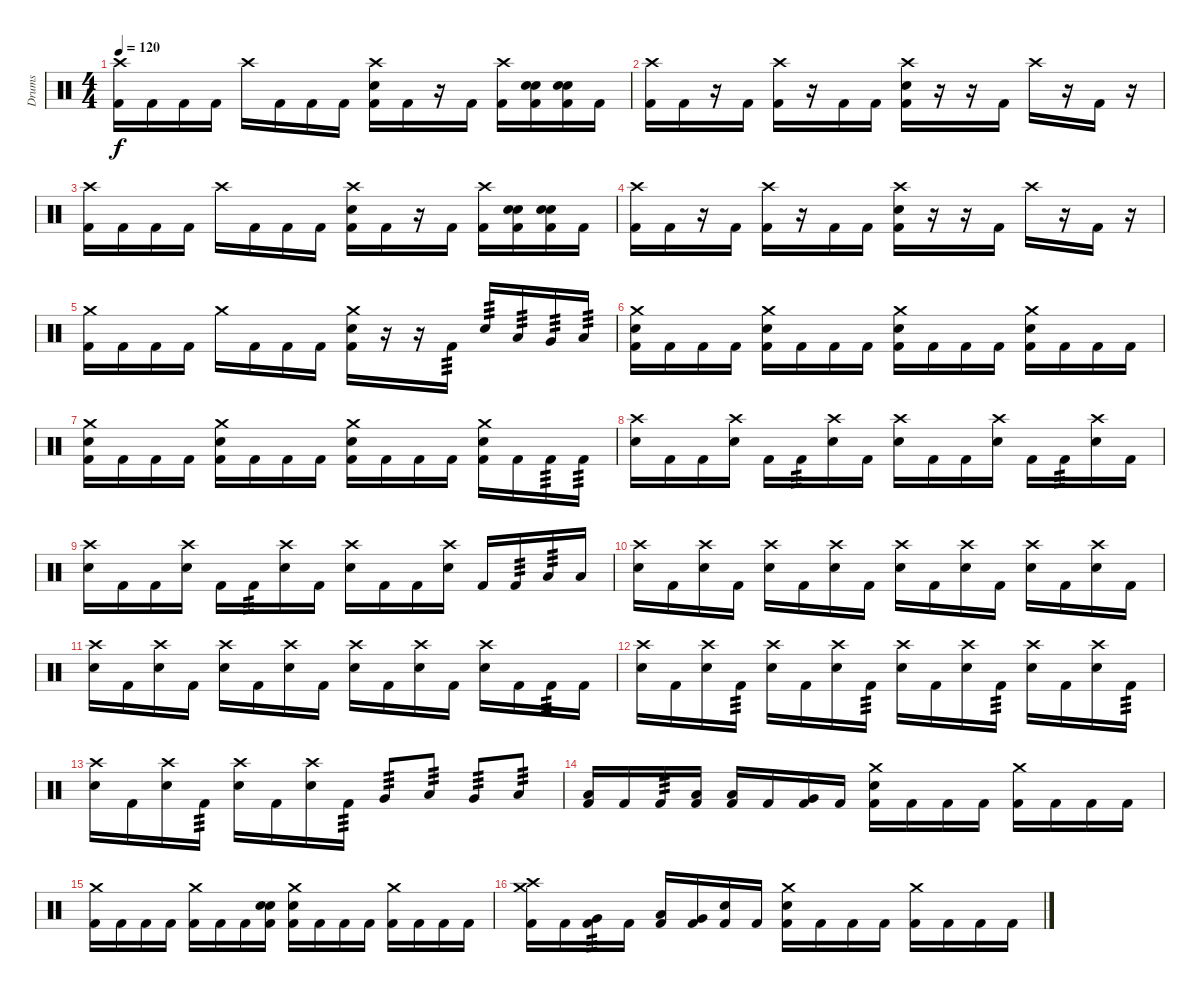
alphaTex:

\track ("Drums" "Drums") {instrument percussion}
\staff {score}
\articulation defaults
\ts (4 4)
\tempo 120
\clef neutral
\ks c
("Crash high (hit)" "Kick (hit) 2").16{dy f} "Kick (hit) 2".16 "Kick (hit) 2".16 "Kick (hit) 2".16 "Crash high (hit)".16 "Kick (hit) 2".16 "Kick (hit) 2".16 "Kick (hit) 2".16 ("Crash high (hit)" "Electric Snare (hit)" "Kick (hit) 2").16 "Kick (hit) 2".16 r.16 "Kick (hit) 2".16 ("Crash high (hit)" "Kick (hit) 2").16 ("Electric Snare (hit)" "Electric Snare (hit)" "Kick (hit) 2").16 ("Electric Snare (hit)" "Electric Snare (hit)" "Kick (hit) 2").16 "Kick (hit) 2".16 |
("Crash high (hit)" "Kick (hit) 2").16 "Kick (hit) 2".16 r.16 "Kick (hit) 2".16 ("Crash high (hit)" "Kick (hit) 2").16 r.16 "Kick (hit) 2".16 "Kick (hit) 2".16 ("Crash high (hit)" "Electric Snare (hit)" "Kick (hit) 2").16 r.16 r.16 "Kick (hit) 2".16 "Crash high (hit)".16 r.16 "Kick (hit) 2".16 r.16 |
("Crash high (hit)" "Kick (hit) 2").16 "Kick (hit) 2".16 "Kick (hit) 2".16 "Kick (hit) 2".16 "Crash high (hit)".16 "Kick (hit) 2".16 "Kick (hit) 2".16 "Kick (hit) 2".16 ("Crash high (hit)" "Electric Snare (hit)" "Kick (hit) 2").16 "Kick (hit) 2".16 r.16 "Kick (hit) 2".16 ("Crash high (hit)" "Kick (hit) 2").16 ("Electric Snare (hit)" "Electric Snare (hit)" "Kick (hit) 2").16 ("Electric Snare (hit)" "Electric Snare (hit)" "Kick (hit) 2").16 "Kick (hit) 2".16 |
("Crash high (hit)" "Kick (hit) 2").16 "Kick (hit) 2".16 r.16 "Kick (hit) 2".16 ("Crash high (hit)" "Kick (hit) 2").16 r.16 "Kick (hit) 2".16 "Kick (hit) 2".16 ("Crash high (hit)" "Electric Snare (hit)" "Kick (hit) 2").16 r.16 r.16 "Kick (hit) 2".16 "Crash high (hit)".16 r.16 "Kick (hit) 2".16 r.16 |
("Crash medium (hit)" "Kick (hit) 2").16 "Kick (hit) 2".16 "Kick (hit) 2".16 "Kick (hit) 2".16 "Crash medium (hit)".16 "Kick (hit) 2".16 "Kick (hit) 2".16 "Kick (hit) 2".16 ("Crash medium (hit)" "Electric Snare (hit)" "Kick (hit) 2").16 r.16 r.16 "Kick (hit) 2".16{tp 3} "Electric Snare (hit)".16{tp 3} "Low Floor Tom (hit)".16{tp 3} "Very Low Tom (hit)".16{tp 3} "Low Tom (hit)".16{tp 3} |
("Crash medium (hit)" "Electric Snare (hit)" "Kick (hit) 2").16 "Kick (hit) 2".16 "Kick (hit) 2".16 "Kick (hit) 2".16 ("Crash medium (hit)" "Electric Snare (hit)" "Kick (hit) 2").16 "Kick (hit) 2".16 "Kick (hit) 2".16 "Kick (hit) 2".16 ("Crash medium (hit)" "Electric Snare (hit)" "Kick (hit) 2").16 "Kick (hit) 2".16 "Kick (hit) 2".16 "Kick (hit) 2".16 ("Crash medium (hit)" "Electric Snare (hit)" "Kick (hit) 2").16 "Kick (hit) 2".16 "Kick (hit) 2".16 "Kick (hit) 2".16 |
("Crash medium (hit)" "Electric Snare (hit)" "Kick (hit) 2").16 "Kick (hit) 2".16 "Kick (hit) 2".16 "Kick (hit) 2".16 ("Crash medium (hit)" "Electric Snare (hit)" "Kick (hit) 2").16 "Kick (hit) 2".16 "Kick (hit) 2".16 "Kick (hit) 2".16 ("Crash medium (hit)" "Electric Snare (hit)" "Kick (hit) 2").16 "Kick (hit) 2".16 "Kick (hit) 2".16 "Kick (hit) 2".16 ("Crash medium (hit)" "Electric Snare (hit)" "Kick (hit) 2").16 "Kick (hit) 2".16 "Kick (hit) 2".16{tp 3} "Kick (hit) 2".16{tp 3} |
("Crash high (hit)" "Electric Snare (hit)").16 "Kick (hit) 2".16 "Kick (hit) 2".16 ("Crash high (hit)" "Electric Snare (hit)").16 "Kick (hit) 2".16 "Kick (hit) 2".16{tp 3} ("Crash high (hit)" "Electric Snare (hit)").16 "Kick (hit) 2".16 ("Crash high (hit)" "Electric Snare (hit)").16 "Kick (hit) 2".16 "Kick (hit) 2".16 ("Crash high (hit)" "Electric Snare (hit)").16 "Kick (hit) 2".16 "Kick (hit) 2".16{tp 3} ("Crash high (hit)" "Electric Snare (hit)").16 "Kick (hit) 2".16 |
("Crash high (hit)" "Electric Snare (hit)").16 "Kick (hit) 2".16 "Kick (hit) 2".16 ("Crash high (hit)" "Electric Snare (hit)").16 "Kick (hit) 2".16 "Kick (hit) 2".16{tp 3} ("Crash high (hit)" "Electric Snare (hit)").16 "Kick (hit) 2".16 ("Crash high (hit)" "Electric Snare (hit)").16 "Kick (hit) 2".16 "Kick (hit) 2".16 ("Crash high (hit)" "Electric Snare (hit)").16 "Kick (hit) 2".16 "Kick (hit) 2".16{tp 3} "Low Floor Tom (hit)".16{tp 3} "Low Floor Tom (hit)".16 |
("Crash high (hit)" "Electric Snare (hit)").16 "Kick (hit) 2".16 ("Crash high (hit)" "Electric Snare (hit)").16 "Kick (hit) 2".16 ("Crash high (hit)" "Electric Snare (hit)").16 "Kick (hit) 2".16 ("Crash high (hit)" "Electric Snare (hit)").16 "Kick (hit) 2".16 ("Crash high (hit)" "Electric Snare (hit)").16 "Kick (hit) 2".16 ("Crash high (hit)" "Electric Snare (hit)").16 "Kick (hit) 2".16 ("Crash high (hit)" "Electric Snare (hit)").16 "Kick (hit) 2".16 ("Crash high (hit)" "Electric Snare (hit)").16 "Kick (hit) 2".16 |
("Crash high (hit)" "Electric Snare (hit)").16 "Kick (hit) 2".16 ("Crash high (hit)" "Electric Snare (hit)").16 "Kick (hit) 2".16 ("Crash high (hit)" "Electric Snare (hit)").16 "Kick (hit) 2".16 ("Crash high (hit)" "Electric Snare (hit)").16 "Kick (hit) 2".16 ("Crash high (hit)" "Electric Snare (hit)").16 "Kick (hit) 2".16 ("Crash high (hit)" "Electric Snare (hit)").16 "Kick (hit) 2".16 ("Crash high (hit)" "Electric Snare (hit)").16 "Kick (hit) 2".16 "Kick (hit) 2".16{tp 3} "Kick (hit) 2".16 |
("Crash high (hit)" "Electric Snare (hit)").16 "Kick (hit) 2".16 ("Crash high (hit)" "Electric Snare (hit)").16 "Kick (hit) 2".16{tp 3} ("Crash high (hit)" "Electric Snare (hit)").16 "Kick (hit) 2".16 ("Crash high (hit)" "Electric Snare (hit)").16 "Kick (hit) 2".16{tp 3} ("Crash high (hit)" "Electric Snare (hit)").16 "Kick (hit) 2".16 ("Crash high (hit)" "Electric Snare (hit)").16 "Kick (hit) 2".16{tp 3} ("Crash high (hit)" "Electric Snare (hit)").16 "Kick (hit) 2".16 ("Crash high (hit)" "Electric Snare (hit)").16 "Kick (hit) 2".16{tp 3} |
("Crash high (hit)" "Electric Snare (hit)").16 "Kick (hit) 2".16 ("Crash high (hit)" "Electric Snare (hit)").16 "Kick (hit) 2".16{tp 3} ("Crash high (hit)" "Electric Snare (hit)").16 "Kick (hit) 2".16 ("Crash high (hit)" "Electric Snare (hit)").16 "Kick (hit) 2".16{tp 3} "Very Low Tom (hit)".8{tp 3} "Low Floor Tom (hit)".8{tp 3} "Very Low Tom (hit)".8{tp 3} "Low Floor Tom (hit)".8{tp 3} |
("Low Floor Tom (hit)" "Kick (hit) 2").16 "Kick (hit) 2".16 "Kick (hit) 2".16{tp 3} ("Low Floor Tom (hit)" "Kick (hit) 2").16 ("Low Floor Tom (hit)" "Kick (hit) 2").16 "Kick (hit) 2".16 ("Very Low Tom (hit)" "Kick (hit) 2").16 "Kick (hit) 2".16 ("Crash medium (hit)" "Electric Snare (hit)" "Kick (hit) 2").16 "Kick (hit) 2".16 "Kick (hit) 2".16 "Kick (hit) 2".16 ("Crash medium (hit)" "Kick (hit) 2").16 "Kick (hit) 2".16 "Kick (hit) 2".16 "Kick (hit) 2".16 |
("Crash medium (hit)" "Kick (hit) 2").16 "Kick (hit) 2".16 "Kick (hit) 2".16 "Kick (hit) 2".16 ("Crash medium (hit)" "Kick (hit) 2").16 "Kick (hit) 2".16 "Kick (hit) 2".16 ("Electric Snare (hit)" "Electric Snare (hit)" "Kick (hit) 2").16 ("Crash medium (hit)" "Electric Snare (hit)" "Kick (hit) 2").16 "Kick (hit) 2".16 "Kick (hit) 2".16 "Kick (hit) 2".16 ("Crash medium (hit)" "Kick (hit) 2").16 "Kick (hit) 2".16 "Kick (hit) 2".16 "Kick (hit) 2".16 |
("Crash medium (hit)" "Crash high (hit)" "Kick (hit) 2").16 "Kick (hit) 2".16 ("Very Low Tom (hit)" "Kick (hit) 2").16{tp 3} "Kick (hit) 2".16 ("Low Tom (hit)" "Kick (hit) 2").16 ("Very Low Tom (hit)" "Kick (hit) 2").16 ("Electric Snare (hit)" "Kick (hit) 2").16 "Kick (hit) 2".16 ("Crash medium (hit)" "Electric Snare (hit)" "Kick (hit) 2").16 "Kick (hit) 2".16 "Kick (hit) 2".16 "Kick (hit) 2".16 ("Crash medium (hit)" "Kick (hit) 2").16 "Kick (hit) 2".16 "Kick (hit) 2".16 "Kick (hit) 2".16
